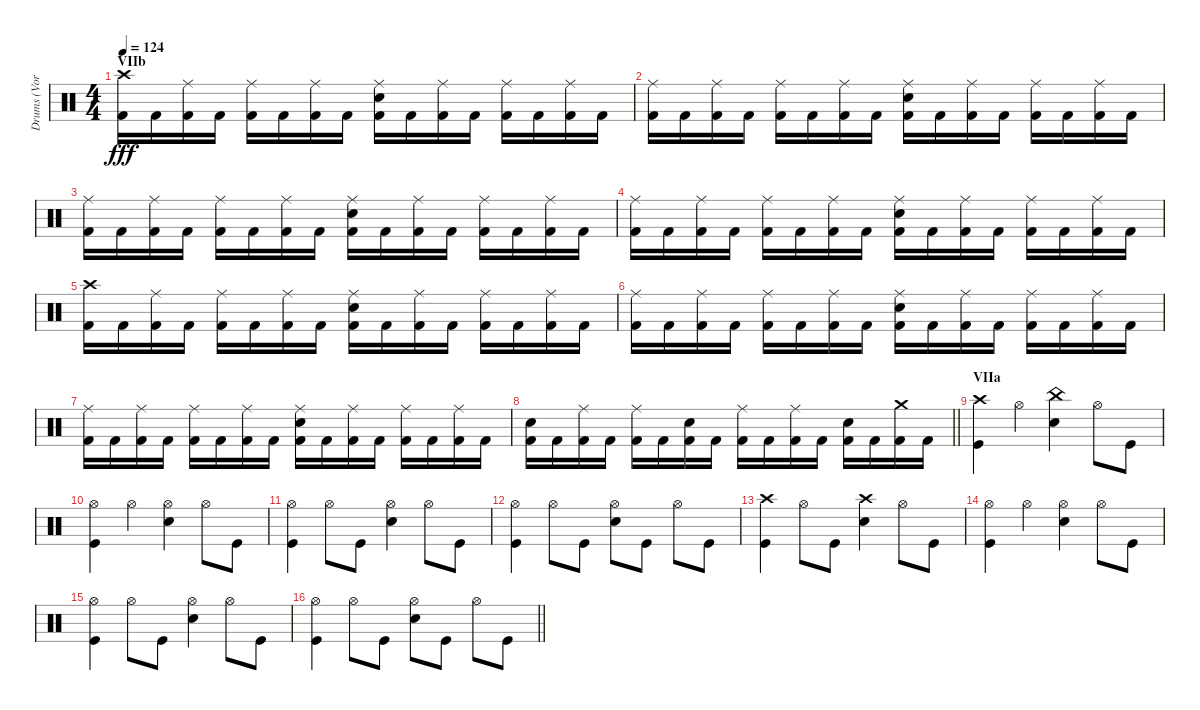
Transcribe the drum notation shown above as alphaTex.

\track ("Drums (Vortex)" "Drums (Vor") {instrument percussion}
\staff {score}
\articulation defaults
\ts (4 4)
\section ("" "VIIb")
\tempo 124
\clef neutral
\ks c
("Crash high (hit)" "Kick (hit) 2").16{dy fff} "Kick (hit) 2".16 ("Ride (middle)" "Kick (hit) 2").16 "Kick (hit) 2".16 ("Ride (middle)" "Kick (hit) 2").16 "Kick (hit) 2".16 ("Ride (middle)" "Kick (hit) 2").16 "Kick (hit) 2".16 ("Ride (middle)" "Snare (hit) 2" "Kick (hit) 2").16 "Kick (hit) 2".16 ("Ride (middle)" "Kick (hit) 2").16 "Kick (hit) 2".16 ("Ride (middle)" "Kick (hit) 2").16 "Kick (hit) 2".16 ("Ride (middle)" "Kick (hit) 2").16 "Kick (hit) 2".16 |
("Ride (middle)" "Kick (hit) 2").16 "Kick (hit) 2".16 ("Ride (middle)" "Kick (hit) 2").16 "Kick (hit) 2".16 ("Ride (middle)" "Kick (hit) 2").16 "Kick (hit) 2".16 ("Ride (middle)" "Kick (hit) 2").16 "Kick (hit) 2".16 ("Ride (middle)" "Snare (hit) 2" "Kick (hit) 2").16 "Kick (hit) 2".16 ("Ride (middle)" "Kick (hit) 2").16 "Kick (hit) 2".16 ("Ride (middle)" "Kick (hit) 2").16 "Kick (hit) 2".16 ("Ride (middle)" "Kick (hit) 2").16 "Kick (hit) 2".16 |
("Ride (middle)" "Kick (hit) 2").16 "Kick (hit) 2".16 ("Ride (middle)" "Kick (hit) 2").16 "Kick (hit) 2".16 ("Ride (middle)" "Kick (hit) 2").16 "Kick (hit) 2".16 ("Ride (middle)" "Kick (hit) 2").16 "Kick (hit) 2".16 ("Ride (middle)" "Snare (hit) 2" "Kick (hit) 2").16 "Kick (hit) 2".16 ("Ride (middle)" "Kick (hit) 2").16 "Kick (hit) 2".16 ("Ride (middle)" "Kick (hit) 2").16 "Kick (hit) 2".16 ("Ride (middle)" "Kick (hit) 2").16 "Kick (hit) 2".16 |
("Ride (middle)" "Kick (hit) 2").16 "Kick (hit) 2".16 ("Ride (middle)" "Kick (hit) 2").16 "Kick (hit) 2".16 ("Ride (middle)" "Kick (hit) 2").16 "Kick (hit) 2".16 ("Ride (middle)" "Kick (hit) 2").16 "Kick (hit) 2".16 ("Ride (middle)" "Snare (hit) 2" "Kick (hit) 2").16 "Kick (hit) 2".16 ("Ride (middle)" "Kick (hit) 2").16 "Kick (hit) 2".16 ("Ride (middle)" "Kick (hit) 2").16 "Kick (hit) 2".16 ("Ride (middle)" "Kick (hit) 2").16 "Kick (hit) 2".16 |
("Crash high (hit)" "Kick (hit) 2").16 "Kick (hit) 2".16 ("Ride (middle)" "Kick (hit) 2").16 "Kick (hit) 2".16 ("Ride (middle)" "Kick (hit) 2").16 "Kick (hit) 2".16 ("Ride (middle)" "Kick (hit) 2").16 "Kick (hit) 2".16 ("Ride (middle)" "Snare (hit) 2" "Kick (hit) 2").16 "Kick (hit) 2".16 ("Ride (middle)" "Kick (hit) 2").16 "Kick (hit) 2".16 ("Ride (middle)" "Kick (hit) 2").16 "Kick (hit) 2".16 ("Ride (middle)" "Kick (hit) 2").16 "Kick (hit) 2".16 |
("Ride (middle)" "Kick (hit) 2").16 "Kick (hit) 2".16 ("Ride (middle)" "Kick (hit) 2").16 "Kick (hit) 2".16 ("Ride (middle)" "Kick (hit) 2").16 "Kick (hit) 2".16 ("Ride (middle)" "Kick (hit) 2").16 "Kick (hit) 2".16 ("Ride (middle)" "Snare (hit) 2" "Kick (hit) 2").16 "Kick (hit) 2".16 ("Ride (middle)" "Kick (hit) 2").16 "Kick (hit) 2".16 ("Ride (middle)" "Kick (hit) 2").16 "Kick (hit) 2".16 ("Ride (middle)" "Kick (hit) 2").16 "Kick (hit) 2".16 |
("Ride (middle)" "Kick (hit) 2").16 "Kick (hit) 2".16 ("Ride (middle)" "Kick (hit) 2").16 "Kick (hit) 2".16 ("Ride (middle)" "Kick (hit) 2").16 "Kick (hit) 2".16 ("Ride (middle)" "Kick (hit) 2").16 "Kick (hit) 2".16 ("Ride (middle)" "Snare (hit) 2" "Kick (hit) 2").16 "Kick (hit) 2".16 ("Ride (middle)" "Kick (hit) 2").16 "Kick (hit) 2".16 ("Ride (middle)" "Kick (hit) 2").16 "Kick (hit) 2".16 ("Ride (middle)" "Kick (hit) 2").16 "Kick (hit) 2".16 |
\barLineRight lightlight
("Snare (hit) 2" "Kick (hit) 2").16 "Kick (hit) 2".16 ("Ride (middle)" "Kick (hit) 2").16 "Kick (hit) 2".16 ("Ride (middle)" "Kick (hit) 2").16 "Kick (hit) 2".16 ("Snare (hit) 2" "Kick (hit) 2").16 "Kick (hit) 2".16 ("Ride (middle)" "Kick (hit) 2").16 "Kick (hit) 2".16 ("Ride (middle)" "Kick (hit) 2").16 "Kick (hit) 2".16 ("Snare (hit) 2" "Kick (hit) 2").16 "Kick (hit) 2".16 ("Crash medium (hit)" "Kick (hit) 2").16 "Kick (hit) 2".16 |
\section ("" "VIIa")
("Crash high (hit)" "Kick (hit)").4 "Hi-Hat (open)".4 ("China (hit)" "Snare (hit) 2").4 "Hi-Hat (open)".8 "Kick (hit)".8 |
("Kick (hit)" "Hi-Hat (open)").4 "Hi-Hat (open)".4 ("Hi-Hat (open)" "Snare (hit) 2").4 "Hi-Hat (open)".8 "Kick (hit)".8 |
("Kick (hit)" "Hi-Hat (open)").4 "Hi-Hat (open)".8 "Kick (hit)".8 ("Hi-Hat (open)" "Snare (hit) 2").4 "Hi-Hat (open)".8 "Kick (hit)".8 |
("Kick (hit)" "Hi-Hat (open)").4 "Hi-Hat (open)".8 "Kick (hit)".8 ("Hi-Hat (open)" "Snare (hit) 2").8 "Kick (hit)".8 "Hi-Hat (open)".8 "Kick (hit)".8 |
("Crash high (hit)" "Kick (hit)").4 "Hi-Hat (open)".8 "Kick (hit)".8 ("Crash high (hit)" "Snare (hit) 2").4 "Hi-Hat (open)".8 "Kick (hit)".8 |
("Kick (hit)" "Hi-Hat (open)").4 "Hi-Hat (open)".4 ("Hi-Hat (open)" "Snare (hit) 2").4 "Hi-Hat (open)".8 "Kick (hit)".8 |
("Kick (hit)" "Hi-Hat (open)").4 "Hi-Hat (open)".8 "Kick (hit)".8 ("Hi-Hat (open)" "Snare (hit) 2").4 "Hi-Hat (open)".8 "Kick (hit)".8 |
\barLineRight lightlight
("Kick (hit)" "Hi-Hat (open)").4 "Hi-Hat (open)".8 "Kick (hit)".8 ("Hi-Hat (open)" "Snare (hit) 2").8 "Kick (hit)".8 "Hi-Hat (open)".8 "Kick (hit)".8
